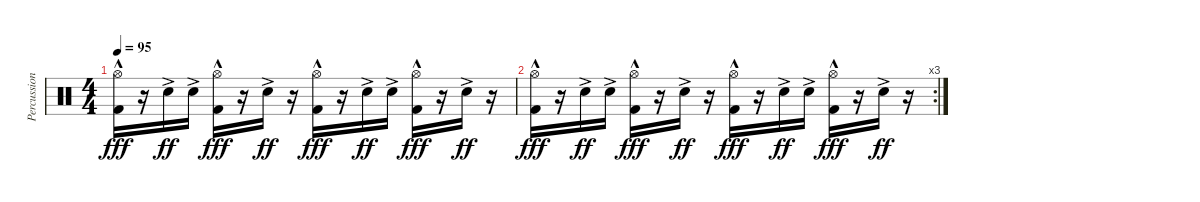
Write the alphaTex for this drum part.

\track ("Percussion" "Percussion") {instrument percussion}
\staff {score}
\articulation defaults
\ts (4 4)
\tempo 95
\clef neutral
\ks c
("Hi-Hat (open)"{hac} "Kick (hit) 2"{hac}).16{dy fff} r.16 "Snare (hit) 2"{ac}.16{dy ff} "Snare (hit) 2"{ac}.16 ("Hi-Hat (open)"{hac} "Kick (hit) 2"{hac}).16{dy fff} r.16 "Snare (hit) 2"{ac}.16{dy ff} r.16 ("Hi-Hat (open)"{hac} "Kick (hit) 2"{hac}).16{dy fff} r.16 "Snare (hit) 2"{ac}.16{dy ff} "Snare (hit) 2"{ac}.16 ("Hi-Hat (open)"{hac} "Kick (hit) 2"{hac}).16{dy fff} r.16 "Snare (hit) 2"{ac}.16{dy ff} r.16 |
\rc 3
("Hi-Hat (open)"{hac} "Kick (hit) 2"{hac}).16{dy fff} r.16 "Snare (hit) 2"{ac}.16{dy ff} "Snare (hit) 2"{ac}.16 ("Hi-Hat (open)"{hac} "Kick (hit) 2"{hac}).16{dy fff} r.16 "Snare (hit) 2"{ac}.16{dy ff} r.16 ("Hi-Hat (open)"{hac} "Kick (hit) 2"{hac}).16{dy fff} r.16 "Snare (hit) 2"{ac}.16{dy ff} "Snare (hit) 2"{ac}.16 ("Hi-Hat (open)"{hac} "Kick (hit) 2"{hac}).16{dy fff} r.16 "Snare (hit) 2"{ac}.16{dy ff} r.16
